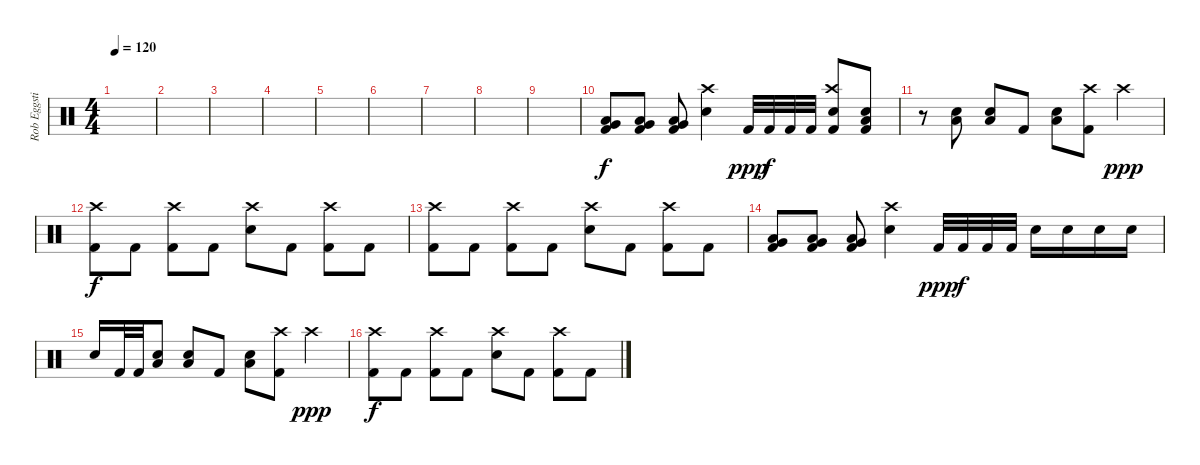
\track ("Rob Eggstick" "Rob Eggsti") {instrument percussion}
\staff {score}
\articulation defaults
\ts (4 4)
\tempo 120
\clef neutral
\ks c
|
|
|
|
|
|
|
|
|
("Very Low Tom (hit)" "Low Tom (hit)" "Kick (hit) 2").8 ("Very Low Tom (hit)" "Low Tom (hit)" "Kick (hit) 2").8 ("Very Low Tom (hit)" "Low Tom (hit)" "Kick (hit) 2").8 ("Crash high (hit)" "Electric Snare (hit)").4 "Kick (hit) 2".32{dy ppp} "Kick (hit) 2".32{dy f} "Kick (hit) 2".32 "Kick (hit) 2".32 ("Crash high (hit)" "Electric Snare (hit)" "Kick (hit) 2").8 ("Low Tom (hit)" "Electric Snare (hit)" "Kick (hit) 2").8 |
r.8 ("Low Tom (hit)" "Electric Snare (hit)").8 ("Low Tom (hit)" "Electric Snare (hit)").8 "Kick (hit) 2".8 ("Low Tom (hit)" "Electric Snare (hit)").8 ("Crash high (hit)" "Kick (hit) 2").8 "Crash high (hit)".4{dy ppp} |
("Crash high (hit)" "Kick (hit) 2").8{dy f} "Kick (hit) 2".8 ("Crash high (hit)" "Kick (hit) 2").8 "Kick (hit) 2".8 ("Crash high (hit)" "Electric Snare (hit)").8 "Kick (hit) 2".8 ("Crash high (hit)" "Kick (hit) 2").8 "Kick (hit) 2".8 |
("Crash high (hit)" "Kick (hit) 2").8 "Kick (hit) 2".8 ("Crash high (hit)" "Kick (hit) 2").8 "Kick (hit) 2".8 ("Crash high (hit)" "Electric Snare (hit)").8 "Kick (hit) 2".8 ("Crash high (hit)" "Kick (hit) 2").8 "Kick (hit) 2".8 |
("Very Low Tom (hit)" "Low Tom (hit)" "Kick (hit) 2").8 ("Very Low Tom (hit)" "Low Tom (hit)" "Kick (hit) 2").8 ("Very Low Tom (hit)" "Low Tom (hit)" "Kick (hit) 2").8 ("Crash high (hit)" "Electric Snare (hit)").4 "Kick (hit) 2".32{dy ppp} "Kick (hit) 2".32{dy f} "Kick (hit) 2".32 "Kick (hit) 2".32 "Electric Snare (hit)".16 "Electric Snare (hit)".16 "Electric Snare (hit)".16 "Electric Snare (hit)".16 |
"Electric Snare (hit)".16 "Kick (hit) 2".32 "Kick (hit) 2".32 ("Low Tom (hit)" "Electric Snare (hit)").8 ("Low Tom (hit)" "Electric Snare (hit)").8 "Kick (hit) 2".8 ("Low Tom (hit)" "Electric Snare (hit)").8 ("Crash high (hit)" "Kick (hit) 2").8 "Crash high (hit)".4{dy ppp} |
("Crash high (hit)" "Kick (hit) 2").8{dy f} "Kick (hit) 2".8 ("Crash high (hit)" "Kick (hit) 2").8 "Kick (hit) 2".8 ("Crash high (hit)" "Electric Snare (hit)").8 "Kick (hit) 2".8 ("Crash high (hit)" "Kick (hit) 2").8 "Kick (hit) 2".8
